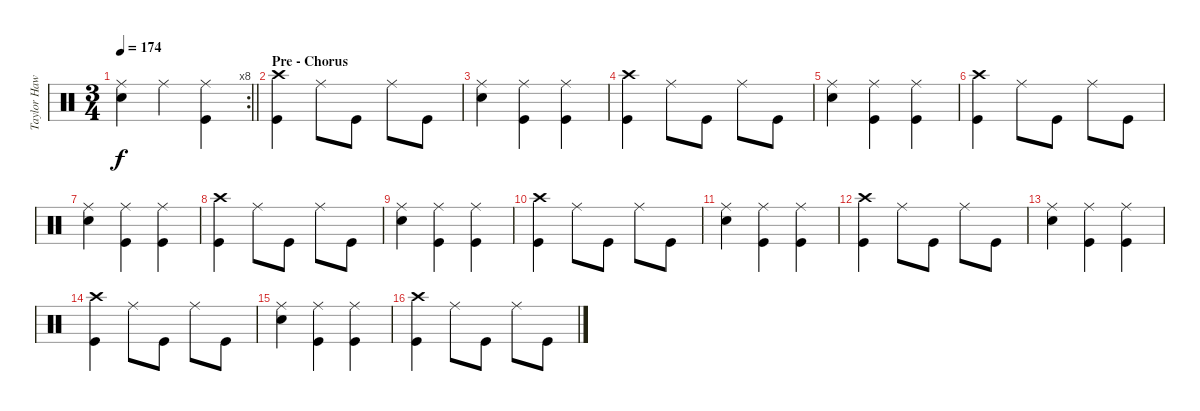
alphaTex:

\track ("Taylor Hawkins - Drums" "Taylor Haw") {instrument percussion}
\staff {score}
\articulation defaults
\rc 8
\ts (3 4)
\tempo 174
\clef neutral
\barLineRight lightlight
\ks c
("Ride (middle)" "Snare (hit) 2").4{dy f} "Ride (middle)".4 ("Ride (middle)" "Kick (hit)").4 |
\section ("" "Pre - Chorus")
("Crash high (hit)" "Kick (hit)").4 "Ride (middle)".8 "Kick (hit)".8 "Ride (middle)".8 "Kick (hit)".8 |
("Ride (middle)" "Snare (hit) 2").4 ("Ride (middle)" "Kick (hit)").4 ("Ride (middle)" "Kick (hit)").4 |
("Crash high (hit)" "Kick (hit)").4 "Ride (middle)".8 "Kick (hit)".8 "Ride (middle)".8 "Kick (hit)".8 |
("Ride (middle)" "Snare (hit) 2").4 ("Ride (middle)" "Kick (hit)").4 ("Ride (middle)" "Kick (hit)").4 |
("Crash high (hit)" "Kick (hit)").4 "Ride (middle)".8 "Kick (hit)".8 "Ride (middle)".8 "Kick (hit)".8 |
("Ride (middle)" "Snare (hit) 2").4 ("Ride (middle)" "Kick (hit)").4 ("Ride (middle)" "Kick (hit)").4 |
("Crash high (hit)" "Kick (hit)").4 "Ride (middle)".8 "Kick (hit)".8 "Ride (middle)".8 "Kick (hit)".8 |
("Ride (middle)" "Snare (hit) 2").4 ("Ride (middle)" "Kick (hit)").4 ("Ride (middle)" "Kick (hit)").4 |
("Crash high (hit)" "Kick (hit)").4 "Ride (middle)".8 "Kick (hit)".8 "Ride (middle)".8 "Kick (hit)".8 |
("Ride (middle)" "Snare (hit) 2").4 ("Ride (middle)" "Kick (hit)").4 ("Ride (middle)" "Kick (hit)").4 |
("Crash high (hit)" "Kick (hit)").4 "Ride (middle)".8 "Kick (hit)".8 "Ride (middle)".8 "Kick (hit)".8 |
("Ride (middle)" "Snare (hit) 2").4 ("Ride (middle)" "Kick (hit)").4 ("Ride (middle)" "Kick (hit)").4 |
("Crash high (hit)" "Kick (hit)").4 "Ride (middle)".8 "Kick (hit)".8 "Ride (middle)".8 "Kick (hit)".8 |
("Ride (middle)" "Snare (hit) 2").4 ("Ride (middle)" "Kick (hit)").4 ("Ride (middle)" "Kick (hit)").4 |
("Crash high (hit)" "Kick (hit)").4 "Ride (middle)".8 "Kick (hit)".8 "Ride (middle)".8 "Kick (hit)".8
